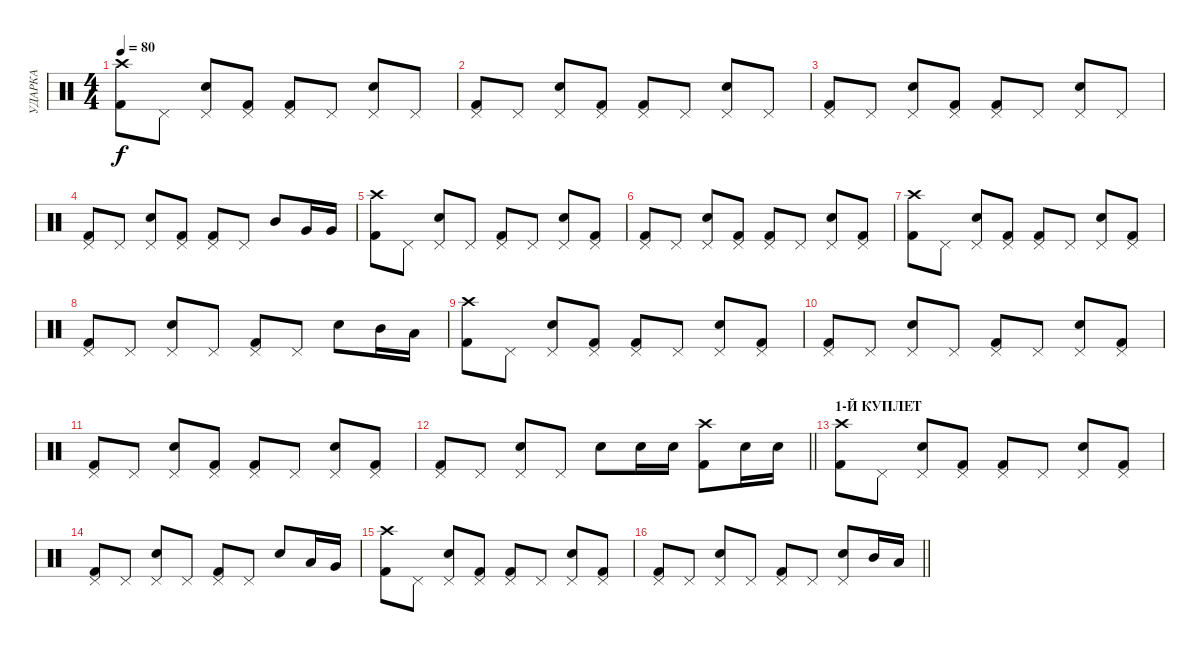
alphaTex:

\track ("УДАРКА" "УДАРКА") {instrument percussion}
\staff {score}
\articulation defaults
\ts (4 4)
\tempo 80
\clef neutral
\ks c
("Crash high (hit)" "Kick (hit) 2").8{dy f} "Pedal Hi-Hat (hit)".8 ("Pedal Hi-Hat (hit)" "Electric Snare (hit)").8 ("Pedal Hi-Hat (hit)" "Kick (hit) 2").8 ("Pedal Hi-Hat (hit)" "Kick (hit) 2").8 "Pedal Hi-Hat (hit)".8 ("Pedal Hi-Hat (hit)" "Electric Snare (hit)").8 "Pedal Hi-Hat (hit)".8 |
("Pedal Hi-Hat (hit)" "Kick (hit) 2").8 "Pedal Hi-Hat (hit)".8 ("Pedal Hi-Hat (hit)" "Electric Snare (hit)").8 ("Pedal Hi-Hat (hit)" "Kick (hit) 2").8 ("Pedal Hi-Hat (hit)" "Kick (hit) 2").8 "Pedal Hi-Hat (hit)".8 ("Pedal Hi-Hat (hit)" "Electric Snare (hit)").8 "Pedal Hi-Hat (hit)".8 |
("Pedal Hi-Hat (hit)" "Kick (hit) 2").8 "Pedal Hi-Hat (hit)".8 ("Pedal Hi-Hat (hit)" "Electric Snare (hit)").8 ("Pedal Hi-Hat (hit)" "Kick (hit) 2").8 ("Pedal Hi-Hat (hit)" "Kick (hit) 2").8 "Pedal Hi-Hat (hit)".8 ("Pedal Hi-Hat (hit)" "Electric Snare (hit)").8 "Pedal Hi-Hat (hit)".8 |
("Pedal Hi-Hat (hit)" "Kick (hit) 2").8 "Pedal Hi-Hat (hit)".8 ("Pedal Hi-Hat (hit)" "Electric Snare (hit)").8 ("Pedal Hi-Hat (hit)" "Kick (hit) 2").8 ("Pedal Hi-Hat (hit)" "Kick (hit) 2").8 "Pedal Hi-Hat (hit)".8 "Mid Tom (hit)".8 "Very Low Tom (hit)".16 "Very Low Tom (hit)".16 |
("Crash high (hit)" "Kick (hit) 2").8 "Pedal Hi-Hat (hit)".8 ("Pedal Hi-Hat (hit)" "Electric Snare (hit)").8 "Pedal Hi-Hat (hit)".8 ("Pedal Hi-Hat (hit)" "Kick (hit) 2").8 "Pedal Hi-Hat (hit)".8 ("Pedal Hi-Hat (hit)" "Electric Snare (hit)").8 ("Pedal Hi-Hat (hit)" "Kick (hit) 2").8 |
("Pedal Hi-Hat (hit)" "Kick (hit) 2").8 "Pedal Hi-Hat (hit)".8 ("Pedal Hi-Hat (hit)" "Electric Snare (hit)").8 ("Pedal Hi-Hat (hit)" "Kick (hit) 2").8 ("Pedal Hi-Hat (hit)" "Kick (hit) 2").8 "Pedal Hi-Hat (hit)".8 ("Pedal Hi-Hat (hit)" "Electric Snare (hit)").8 ("Pedal Hi-Hat (hit)" "Kick (hit) 2").8 |
("Crash high (hit)" "Kick (hit) 2").8 "Pedal Hi-Hat (hit)".8 ("Pedal Hi-Hat (hit)" "Electric Snare (hit)").8 ("Pedal Hi-Hat (hit)" "Kick (hit) 2").8 ("Pedal Hi-Hat (hit)" "Kick (hit) 2").8 "Pedal Hi-Hat (hit)".8 ("Pedal Hi-Hat (hit)" "Electric Snare (hit)").8 ("Pedal Hi-Hat (hit)" "Kick (hit) 2").8 |
("Pedal Hi-Hat (hit)" "Kick (hit) 2").8 "Pedal Hi-Hat (hit)".8 ("Pedal Hi-Hat (hit)" "Electric Snare (hit)").8 "Pedal Hi-Hat (hit)".8 ("Pedal Hi-Hat (hit)" "Kick (hit) 2").8 "Pedal Hi-Hat (hit)".8 "Electric Snare (hit)".8 "Mid Tom (hit)".16 "Low Tom (hit)".16 |
("Crash high (hit)" "Kick (hit) 2").8 "Pedal Hi-Hat (hit)".8 ("Pedal Hi-Hat (hit)" "Electric Snare (hit)").8 ("Pedal Hi-Hat (hit)" "Kick (hit) 2").8 ("Pedal Hi-Hat (hit)" "Kick (hit) 2").8 "Pedal Hi-Hat (hit)".8 ("Pedal Hi-Hat (hit)" "Electric Snare (hit)").8 ("Pedal Hi-Hat (hit)" "Kick (hit) 2").8 |
("Pedal Hi-Hat (hit)" "Kick (hit) 2").8 "Pedal Hi-Hat (hit)".8 ("Pedal Hi-Hat (hit)" "Electric Snare (hit)").8 "Pedal Hi-Hat (hit)".8 ("Pedal Hi-Hat (hit)" "Kick (hit) 2").8 "Pedal Hi-Hat (hit)".8 ("Pedal Hi-Hat (hit)" "Electric Snare (hit)").8 ("Pedal Hi-Hat (hit)" "Kick (hit) 2").8 |
("Pedal Hi-Hat (hit)" "Kick (hit) 2").8 "Pedal Hi-Hat (hit)".8 ("Pedal Hi-Hat (hit)" "Electric Snare (hit)").8 ("Pedal Hi-Hat (hit)" "Kick (hit) 2").8 ("Pedal Hi-Hat (hit)" "Kick (hit) 2").8 "Pedal Hi-Hat (hit)".8 ("Pedal Hi-Hat (hit)" "Electric Snare (hit)").8 ("Pedal Hi-Hat (hit)" "Kick (hit) 2").8 |
\barLineRight lightlight
("Pedal Hi-Hat (hit)" "Kick (hit) 2").8 "Pedal Hi-Hat (hit)".8 ("Pedal Hi-Hat (hit)" "Electric Snare (hit)").8 "Pedal Hi-Hat (hit)".8 "Electric Snare (hit)".8 "Electric Snare (hit)".16 "Electric Snare (hit)".16 ("Crash high (hit)" "Kick (hit) 2").8 "Electric Snare (hit)".16 "Electric Snare (hit)".16 |
\section ("" "1-Й КУПЛЕТ")
("Crash high (hit)" "Kick (hit) 2").8 "Pedal Hi-Hat (hit)".8 ("Pedal Hi-Hat (hit)" "Electric Snare (hit)").8 ("Pedal Hi-Hat (hit)" "Kick (hit) 2").8 ("Pedal Hi-Hat (hit)" "Kick (hit) 2").8 "Pedal Hi-Hat (hit)".8 ("Pedal Hi-Hat (hit)" "Electric Snare (hit)").8 ("Pedal Hi-Hat (hit)" "Kick (hit) 2").8 |
("Pedal Hi-Hat (hit)" "Kick (hit) 2").8 "Pedal Hi-Hat (hit)".8 ("Pedal Hi-Hat (hit)" "Electric Snare (hit)").8 "Pedal Hi-Hat (hit)".8 ("Pedal Hi-Hat (hit)" "Kick (hit) 2").8 "Pedal Hi-Hat (hit)".8 "Electric Snare (hit)".8 "Low Tom (hit)".16 "Very Low Tom (hit)".16 |
("Crash high (hit)" "Kick (hit) 2").8 "Pedal Hi-Hat (hit)".8 ("Pedal Hi-Hat (hit)" "Electric Snare (hit)").8 ("Pedal Hi-Hat (hit)" "Kick (hit) 2").8 ("Pedal Hi-Hat (hit)" "Kick (hit) 2").8 "Pedal Hi-Hat (hit)".8 ("Pedal Hi-Hat (hit)" "Electric Snare (hit)").8 ("Pedal Hi-Hat (hit)" "Kick (hit) 2").8 |
\barLineRight lightlight
("Pedal Hi-Hat (hit)" "Kick (hit) 2").8 "Pedal Hi-Hat (hit)".8 ("Pedal Hi-Hat (hit)" "Electric Snare (hit)").8 "Pedal Hi-Hat (hit)".8 ("Pedal Hi-Hat (hit)" "Kick (hit) 2").8 "Pedal Hi-Hat (hit)".8 ("Pedal Hi-Hat (hit)" "Electric Snare (hit)").8 "Mid Tom (hit)".16 "Low Tom (hit)".16
